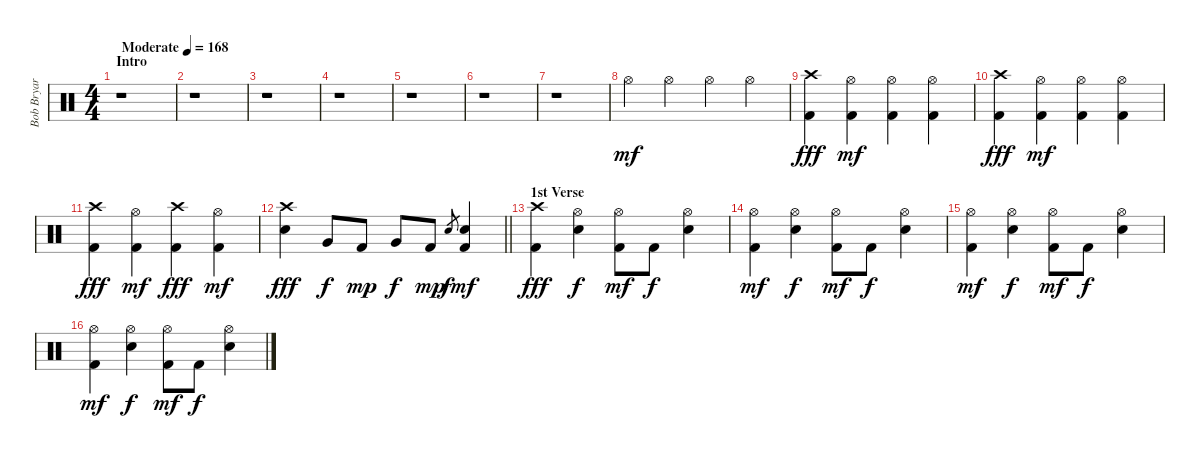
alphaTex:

\track ("Bob Bryar" "Bob Bryar") {instrument percussion}
\staff {score}
\articulation defaults
\ts (4 4)
\section ("" "Intro")
\tempo (168 "Moderate")
\clef neutral
\ks c
r.1{dy mf} |
r.1 |
r.1 |
r.1 |
r.1 |
r.1 |
r.1 |
"Hi-Hat (open)".4 "Hi-Hat (open)".4 "Hi-Hat (open)".4 "Hi-Hat (open)".4 |
("Crash high (hit)" "Kick (hit) 2").4{dy fff} ("Hi-Hat (open)" "Kick (hit) 2").4{dy mf} ("Hi-Hat (open)" "Kick (hit) 2").4 ("Hi-Hat (open)" "Kick (hit) 2").4 |
("Crash high (hit)" "Kick (hit) 2").4{dy fff} ("Hi-Hat (open)" "Kick (hit) 2").4{dy mf} ("Hi-Hat (open)" "Kick (hit) 2").4 ("Hi-Hat (open)" "Kick (hit) 2").4 |
("Crash high (hit)" "Kick (hit) 2").4{dy fff} ("Hi-Hat (open)" "Kick (hit) 2").4{dy mf} ("Crash high (hit)" "Kick (hit) 2").4{dy fff} ("Hi-Hat (open)" "Kick (hit) 2").4{dy mf} |
\barLineRight lightlight
("Crash high (hit)" "Electric Snare (hit)").4{dy fff} "Very Low Tom (hit)".8{dy f} "Kick (hit) 2".8{dy mp} "Very Low Tom (hit)".8{dy f} "Kick (hit) 2".8{dy mp} "Electric Snare (hit)".8{gr dy f} ("Electric Snare (hit)" "Kick (hit) 2").4{dy mf} |
\section ("" "1st Verse")
("Crash high (hit)" "Kick (hit) 2").4{dy fff} ("Hi-Hat (open)" "Electric Snare (hit)").4{dy f} ("Hi-Hat (open)" "Kick (hit) 2").8{dy mf} "Kick (hit) 2".8{dy f} ("Hi-Hat (open)" "Electric Snare (hit)").4 |
("Hi-Hat (open)" "Kick (hit) 2").4{dy mf} ("Hi-Hat (open)" "Electric Snare (hit)").4{dy f} ("Hi-Hat (open)" "Kick (hit) 2").8{dy mf} "Kick (hit) 2".8{dy f} ("Hi-Hat (open)" "Electric Snare (hit)").4 |
("Hi-Hat (open)" "Kick (hit) 2").4{dy mf} ("Hi-Hat (open)" "Electric Snare (hit)").4{dy f} ("Hi-Hat (open)" "Kick (hit) 2").8{dy mf} "Kick (hit) 2".8{dy f} ("Hi-Hat (open)" "Electric Snare (hit)").4 |
("Hi-Hat (open)" "Kick (hit) 2").4{dy mf} ("Hi-Hat (open)" "Electric Snare (hit)").4{dy f} ("Hi-Hat (open)" "Kick (hit) 2").8{dy mf} "Kick (hit) 2".8{dy f} ("Hi-Hat (open)" "Electric Snare (hit)").4
